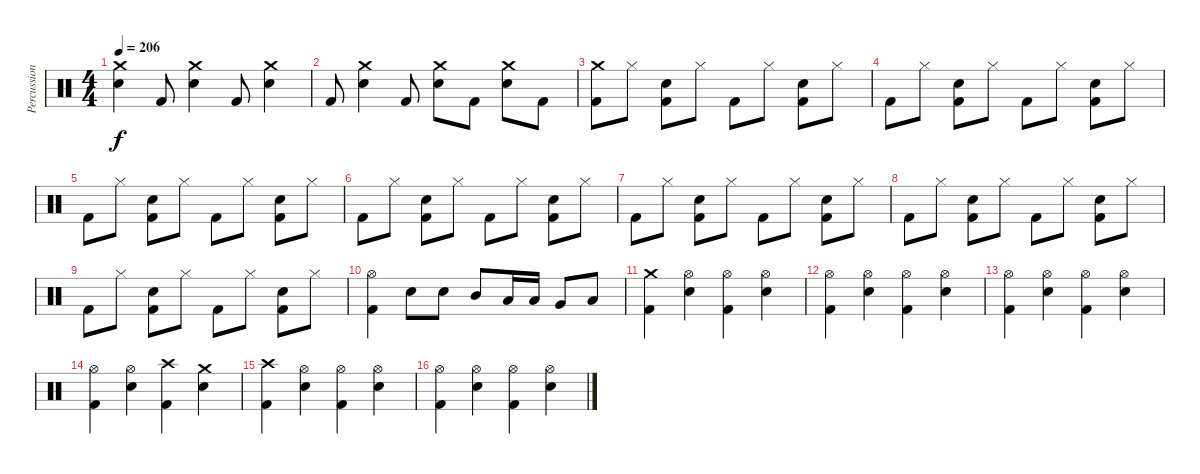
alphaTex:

\track ("Percussion" "Percussion") {instrument percussion}
\staff {score}
\articulation defaults
\ts (4 4)
\tempo 206
\clef neutral
\ks c
("Crash medium (hit)" "Electric Snare (hit)").4{dy f} "Kick (hit) 2".8 ("Crash medium (hit)" "Electric Snare (hit)").4 "Kick (hit) 2".8 ("Crash medium (hit)" "Electric Snare (hit)").4 |
"Kick (hit) 2".8 ("Crash medium (hit)" "Electric Snare (hit)").4 "Kick (hit) 2".8 ("Crash medium (hit)" "Electric Snare (hit)").8 "Kick (hit) 2".8 ("Crash medium (hit)" "Electric Snare (hit)").8 "Kick (hit) 2".8 |
("Crash medium (hit)" "Kick (hit) 2").8 "Hi-Hat (closed)".8 ("Electric Snare (hit)" "Kick (hit) 2").8 "Hi-Hat (closed)".8 "Kick (hit) 2".8 "Hi-Hat (closed)".8 ("Electric Snare (hit)" "Kick (hit) 2").8 "Hi-Hat (closed)".8 |
"Kick (hit) 2".8 "Hi-Hat (closed)".8 ("Electric Snare (hit)" "Kick (hit) 2").8 "Hi-Hat (closed)".8 "Kick (hit) 2".8 "Hi-Hat (closed)".8 ("Electric Snare (hit)" "Kick (hit) 2").8 "Hi-Hat (closed)".8 |
"Kick (hit) 2".8 "Hi-Hat (closed)".8 ("Electric Snare (hit)" "Kick (hit) 2").8 "Hi-Hat (closed)".8 "Kick (hit) 2".8 "Hi-Hat (closed)".8 ("Electric Snare (hit)" "Kick (hit) 2").8 "Hi-Hat (closed)".8 |
"Kick (hit) 2".8 "Hi-Hat (closed)".8 ("Electric Snare (hit)" "Kick (hit) 2").8 "Hi-Hat (closed)".8 "Kick (hit) 2".8 "Hi-Hat (closed)".8 ("Electric Snare (hit)" "Kick (hit) 2").8 "Hi-Hat (closed)".8 |
"Kick (hit) 2".8 "Hi-Hat (closed)".8 ("Electric Snare (hit)" "Kick (hit) 2").8 "Hi-Hat (closed)".8 "Kick (hit) 2".8 "Hi-Hat (closed)".8 ("Electric Snare (hit)" "Kick (hit) 2").8 "Hi-Hat (closed)".8 |
"Kick (hit) 2".8 "Hi-Hat (closed)".8 ("Electric Snare (hit)" "Kick (hit) 2").8 "Hi-Hat (closed)".8 "Kick (hit) 2".8 "Hi-Hat (closed)".8 ("Electric Snare (hit)" "Kick (hit) 2").8 "Hi-Hat (closed)".8 |
"Kick (hit) 2".8 "Hi-Hat (closed)".8 ("Electric Snare (hit)" "Kick (hit) 2").8 "Hi-Hat (closed)".8 "Kick (hit) 2".8 "Hi-Hat (closed)".8 ("Electric Snare (hit)" "Kick (hit) 2").8 "Hi-Hat (closed)".8 |
("Hi-Hat (open)" "Kick (hit) 2").4 "Electric Snare (hit)".8 "Electric Snare (hit)".8 "Mid Tom (hit)".8 "Low Tom (hit)".16 "Low Tom (hit)".16 "Very Low Tom (hit)".8 "Low Floor Tom (hit)".8 |
("Crash medium (hit)" "Kick (hit) 2").4 ("Hi-Hat (open)" "Electric Snare (hit)").4 ("Hi-Hat (open)" "Kick (hit) 2").4 ("Hi-Hat (open)" "Electric Snare (hit)").4 |
("Hi-Hat (open)" "Kick (hit) 2").4 ("Hi-Hat (open)" "Electric Snare (hit)").4 ("Hi-Hat (open)" "Kick (hit) 2").4 ("Hi-Hat (open)" "Electric Snare (hit)").4 |
("Hi-Hat (open)" "Kick (hit) 2").4 ("Hi-Hat (open)" "Electric Snare (hit)").4 ("Hi-Hat (open)" "Kick (hit) 2").4 ("Hi-Hat (open)" "Electric Snare (hit)").4 |
("Hi-Hat (open)" "Kick (hit) 2").4 ("Hi-Hat (open)" "Electric Snare (hit)").4 ("Crash high (hit)" "Kick (hit) 2").4 ("Crash medium (hit)" "Electric Snare (hit)").4 |
("Crash high (hit)" "Kick (hit) 2").4 ("Hi-Hat (open)" "Electric Snare (hit)").4 ("Hi-Hat (open)" "Kick (hit) 2").4 ("Hi-Hat (open)" "Electric Snare (hit)").4 |
("Hi-Hat (open)" "Kick (hit) 2").4 ("Hi-Hat (open)" "Electric Snare (hit)").4 ("Hi-Hat (open)" "Kick (hit) 2").4 ("Hi-Hat (open)" "Electric Snare (hit)").4
